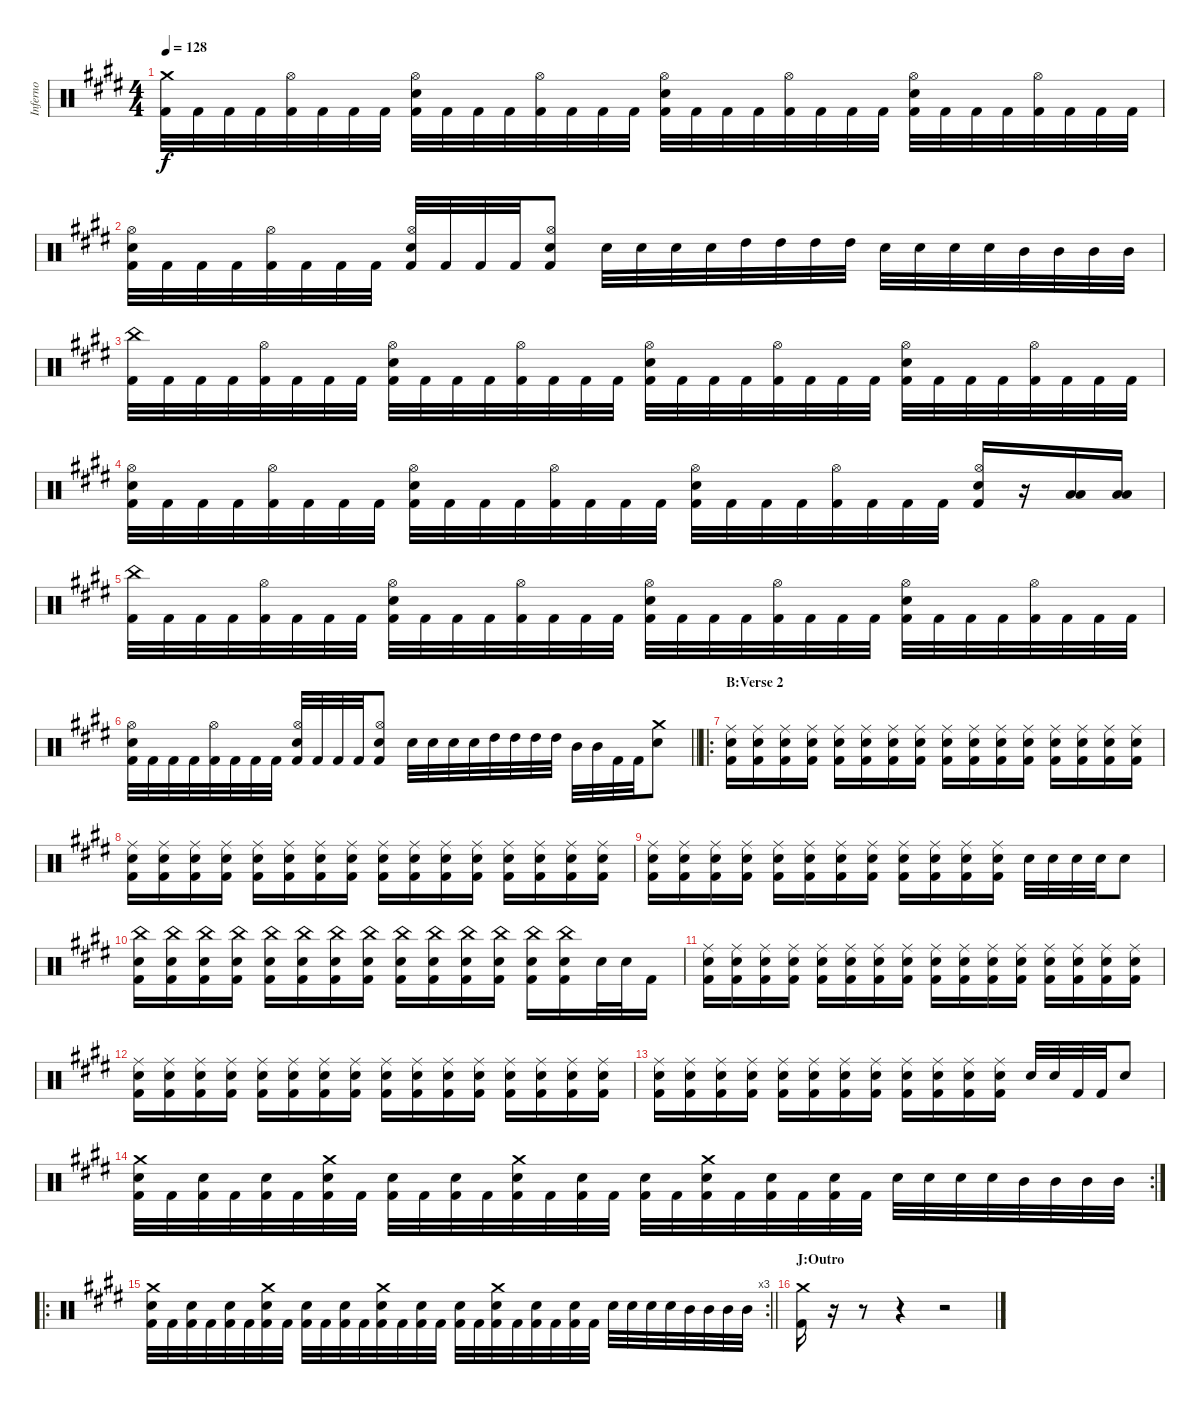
\track ("Inferno" "Inferno") {instrument percussion}
\staff
\articulation defaults
\ts (4 4)
\tempo 128
\clef neutral
\ks c#minor
("Crash medium (hit)" "Kick (hit) 2").32{dy f} "Kick (hit) 2".32 "Kick (hit) 2".32 "Kick (hit) 2".32 ("Hi-Hat (open)" "Kick (hit) 2").32 "Kick (hit) 2".32 "Kick (hit) 2".32 "Kick (hit) 2".32 ("Hi-Hat (open)" "Snare (hit) 2" "Kick (hit) 2").32 "Kick (hit) 2".32 "Kick (hit) 2".32 "Kick (hit) 2".32 ("Hi-Hat (open)" "Kick (hit) 2").32 "Kick (hit) 2".32 "Kick (hit) 2".32 "Kick (hit) 2".32 ("Hi-Hat (open)" "Snare (hit) 2" "Kick (hit) 2").32 "Kick (hit) 2".32 "Kick (hit) 2".32 "Kick (hit) 2".32 ("Hi-Hat (open)" "Kick (hit) 2").32 "Kick (hit) 2".32 "Kick (hit) 2".32 "Kick (hit) 2".32 ("Hi-Hat (open)" "Snare (hit) 2" "Kick (hit) 2").32 "Kick (hit) 2".32 "Kick (hit) 2".32 "Kick (hit) 2".32 ("Hi-Hat (open)" "Kick (hit) 2").32 "Kick (hit) 2".32 "Kick (hit) 2".32 "Kick (hit) 2".32 |
("Hi-Hat (open)" "Snare (hit) 2" "Kick (hit) 2").32 "Kick (hit) 2".32 "Kick (hit) 2".32 "Kick (hit) 2".32 ("Hi-Hat (open)" "Kick (hit) 2").32 "Kick (hit) 2".32 "Kick (hit) 2".32 "Kick (hit) 2".32 ("Hi-Hat (open)" "Snare (hit) 2" "Kick (hit) 2").32 "Kick (hit) 2".32 "Kick (hit) 2".32 "Kick (hit) 2".32 ("Hi-Hat (open)" "Snare (hit) 2" "Kick (hit) 2").8 "Snare (hit) 2".32 "Snare (hit) 2".32 "Snare (hit) 2".32 "Snare (hit) 2".32 "High Tom (hit)".32 "High Tom (hit)".32 "High Tom (hit)".32 "High Tom (hit)".32 "Snare (hit) 2".32 "Snare (hit) 2".32 "Snare (hit) 2".32 "Snare (hit) 2".32 "Mid Tom (hit)".32 "Mid Tom (hit)".32 "Mid Tom (hit)".32 "Mid Tom (hit)".32 |
("China (hit)" "Kick (hit) 2").32 "Kick (hit) 2".32 "Kick (hit) 2".32 "Kick (hit) 2".32 ("Hi-Hat (open)" "Kick (hit) 2").32 "Kick (hit) 2".32 "Kick (hit) 2".32 "Kick (hit) 2".32 ("Hi-Hat (open)" "Snare (hit) 2" "Kick (hit) 2").32 "Kick (hit) 2".32 "Kick (hit) 2".32 "Kick (hit) 2".32 ("Hi-Hat (open)" "Kick (hit) 2").32 "Kick (hit) 2".32 "Kick (hit) 2".32 "Kick (hit) 2".32 ("Hi-Hat (open)" "Snare (hit) 2" "Kick (hit) 2").32 "Kick (hit) 2".32 "Kick (hit) 2".32 "Kick (hit) 2".32 ("Hi-Hat (open)" "Kick (hit) 2").32 "Kick (hit) 2".32 "Kick (hit) 2".32 "Kick (hit) 2".32 ("Hi-Hat (open)" "Snare (hit) 2" "Kick (hit) 2").32 "Kick (hit) 2".32 "Kick (hit) 2".32 "Kick (hit) 2".32 ("Hi-Hat (open)" "Kick (hit) 2").32 "Kick (hit) 2".32 "Kick (hit) 2".32 "Kick (hit) 2".32 |
("Hi-Hat (open)" "Snare (hit) 2" "Kick (hit) 2").32 "Kick (hit) 2".32 "Kick (hit) 2".32 "Kick (hit) 2".32 ("Hi-Hat (open)" "Kick (hit) 2").32 "Kick (hit) 2".32 "Kick (hit) 2".32 "Kick (hit) 2".32 ("Hi-Hat (open)" "Snare (hit) 2" "Kick (hit) 2").32 "Kick (hit) 2".32 "Kick (hit) 2".32 "Kick (hit) 2".32 ("Hi-Hat (open)" "Kick (hit) 2").32 "Kick (hit) 2".32 "Kick (hit) 2".32 "Kick (hit) 2".32 ("Hi-Hat (open)" "Snare (hit) 2" "Kick (hit) 2").32 "Kick (hit) 2".32 "Kick (hit) 2".32 "Kick (hit) 2".32 ("Hi-Hat (open)" "Kick (hit) 2").32 "Kick (hit) 2".32 "Kick (hit) 2".32 "Kick (hit) 2".32 ("Hi-Hat (open)" "Snare (hit) 2" "Kick (hit) 2").16 r.16 ("Low Tom (hit)" "Low Floor Tom (hit)").16 ("Low Tom (hit)" "Low Floor Tom (hit)").16 |
("China (hit)" "Kick (hit) 2").32 "Kick (hit) 2".32 "Kick (hit) 2".32 "Kick (hit) 2".32 ("Hi-Hat (open)" "Kick (hit) 2").32 "Kick (hit) 2".32 "Kick (hit) 2".32 "Kick (hit) 2".32 ("Hi-Hat (open)" "Snare (hit) 2" "Kick (hit) 2").32 "Kick (hit) 2".32 "Kick (hit) 2".32 "Kick (hit) 2".32 ("Hi-Hat (open)" "Kick (hit) 2").32 "Kick (hit) 2".32 "Kick (hit) 2".32 "Kick (hit) 2".32 ("Hi-Hat (open)" "Snare (hit) 2" "Kick (hit) 2").32 "Kick (hit) 2".32 "Kick (hit) 2".32 "Kick (hit) 2".32 ("Hi-Hat (open)" "Kick (hit) 2").32 "Kick (hit) 2".32 "Kick (hit) 2".32 "Kick (hit) 2".32 ("Hi-Hat (open)" "Snare (hit) 2" "Kick (hit) 2").32 "Kick (hit) 2".32 "Kick (hit) 2".32 "Kick (hit) 2".32 ("Hi-Hat (open)" "Kick (hit) 2").32 "Kick (hit) 2".32 "Kick (hit) 2".32 "Kick (hit) 2".32 |
\barLineRight lightlight
("Hi-Hat (open)" "Snare (hit) 2" "Kick (hit) 2").32 "Kick (hit) 2".32 "Kick (hit) 2".32 "Kick (hit) 2".32 ("Hi-Hat (open)" "Kick (hit) 2").32 "Kick (hit) 2".32 "Kick (hit) 2".32 "Kick (hit) 2".32 ("Hi-Hat (open)" "Snare (hit) 2" "Kick (hit) 2").32 "Kick (hit) 2".32 "Kick (hit) 2".32 "Kick (hit) 2".32 ("Hi-Hat (open)" "Snare (hit) 2" "Kick (hit) 2").8 "Snare (hit) 2".32 "Snare (hit) 2".32 "Snare (hit) 2".32 "Snare (hit) 2".32 "High Tom (hit)".32 "High Tom (hit)".32 "High Tom (hit)".32 "High Tom (hit)".32 "Mid Tom (hit)".32 "Mid Tom (hit)".32 "Kick (hit) 2".32 "Kick (hit) 2".32 ("Crash medium (hit)" "Snare (hit) 2").8 |
\ro
\section ("" "B:Verse 2")
("Ride (middle)" "Snare (hit) 2" "Kick (hit) 2").16 ("Ride (middle)" "Snare (hit) 2" "Kick (hit) 2").16 ("Ride (middle)" "Snare (hit) 2" "Kick (hit) 2").16 ("Ride (middle)" "Snare (hit) 2" "Kick (hit) 2").16 ("Ride (middle)" "Snare (hit) 2" "Kick (hit) 2").16 ("Ride (middle)" "Snare (hit) 2" "Kick (hit) 2").16 ("Ride (middle)" "Snare (hit) 2" "Kick (hit) 2").16 ("Ride (middle)" "Snare (hit) 2" "Kick (hit) 2").16 ("Ride (middle)" "Snare (hit) 2" "Kick (hit) 2").16 ("Ride (middle)" "Snare (hit) 2" "Kick (hit) 2").16 ("Ride (middle)" "Snare (hit) 2" "Kick (hit) 2").16 ("Ride (middle)" "Snare (hit) 2" "Kick (hit) 2").16 ("Ride (middle)" "Snare (hit) 2" "Kick (hit) 2").16 ("Ride (middle)" "Snare (hit) 2" "Kick (hit) 2").16 ("Ride (middle)" "Snare (hit) 2" "Kick (hit) 2").16 ("Ride (middle)" "Snare (hit) 2" "Kick (hit) 2").16 |
("Ride (middle)" "Snare (hit) 2" "Kick (hit) 2").16 ("Ride (middle)" "Snare (hit) 2" "Kick (hit) 2").16 ("Ride (middle)" "Snare (hit) 2" "Kick (hit) 2").16 ("Ride (middle)" "Snare (hit) 2" "Kick (hit) 2").16 ("Ride (middle)" "Snare (hit) 2" "Kick (hit) 2").16 ("Ride (middle)" "Snare (hit) 2" "Kick (hit) 2").16 ("Ride (middle)" "Snare (hit) 2" "Kick (hit) 2").16 ("Ride (middle)" "Snare (hit) 2" "Kick (hit) 2").16 ("Ride (middle)" "Snare (hit) 2" "Kick (hit) 2").16 ("Ride (middle)" "Snare (hit) 2" "Kick (hit) 2").16 ("Ride (middle)" "Snare (hit) 2" "Kick (hit) 2").16 ("Ride (middle)" "Snare (hit) 2" "Kick (hit) 2").16 ("Ride (middle)" "Snare (hit) 2" "Kick (hit) 2").16 ("Ride (middle)" "Snare (hit) 2" "Kick (hit) 2").16 ("Ride (middle)" "Snare (hit) 2" "Kick (hit) 2").16 ("Ride (middle)" "Snare (hit) 2" "Kick (hit) 2").16 |
("Ride (middle)" "Snare (hit) 2" "Kick (hit) 2").16 ("Ride (middle)" "Snare (hit) 2" "Kick (hit) 2").16 ("Ride (middle)" "Snare (hit) 2" "Kick (hit) 2").16 ("Ride (middle)" "Snare (hit) 2" "Kick (hit) 2").16 ("Ride (middle)" "Snare (hit) 2" "Kick (hit) 2").16 ("Ride (middle)" "Snare (hit) 2" "Kick (hit) 2").16 ("Ride (middle)" "Snare (hit) 2" "Kick (hit) 2").16 ("Ride (middle)" "Snare (hit) 2" "Kick (hit) 2").16 ("Ride (middle)" "Snare (hit) 2" "Kick (hit) 2").16 ("Ride (middle)" "Snare (hit) 2" "Kick (hit) 2").16 ("Ride (middle)" "Snare (hit) 2" "Kick (hit) 2").16 ("Ride (middle)" "Snare (hit) 2" "Kick (hit) 2").16 "Snare (hit) 2".32 "Snare (hit) 2".32 "Snare (hit) 2".32 "Snare (hit) 2".32 "Snare (hit) 2".8 |
("China (hit)" "Snare (hit) 2" "Kick (hit) 2").16 ("China (hit)" "Snare (hit) 2" "Kick (hit) 2").16 ("China (hit)" "Snare (hit) 2" "Kick (hit) 2").16 ("China (hit)" "Snare (hit) 2" "Kick (hit) 2").16 ("China (hit)" "Snare (hit) 2" "Kick (hit) 2").16 ("China (hit)" "Snare (hit) 2" "Kick (hit) 2").16 ("China (hit)" "Snare (hit) 2" "Kick (hit) 2").16 ("China (hit)" "Snare (hit) 2" "Kick (hit) 2").16 ("China (hit)" "Snare (hit) 2" "Kick (hit) 2").16 ("China (hit)" "Snare (hit) 2" "Kick (hit) 2").16 ("China (hit)" "Snare (hit) 2" "Kick (hit) 2").16 ("China (hit)" "Snare (hit) 2" "Kick (hit) 2").16 ("China (hit)" "Snare (hit) 2" "Kick (hit) 2").16 ("China (hit)" "Snare (hit) 2" "Kick (hit) 2").16 "Snare (hit) 2".32 "Snare (hit) 2".32 "Kick (hit) 2".16 |
("Ride (middle)" "Snare (hit) 2" "Kick (hit) 2").16 ("Ride (middle)" "Snare (hit) 2" "Kick (hit) 2").16 ("Ride (middle)" "Snare (hit) 2" "Kick (hit) 2").16 ("Ride (middle)" "Snare (hit) 2" "Kick (hit) 2").16 ("Ride (middle)" "Snare (hit) 2" "Kick (hit) 2").16 ("Ride (middle)" "Snare (hit) 2" "Kick (hit) 2").16 ("Ride (middle)" "Snare (hit) 2" "Kick (hit) 2").16 ("Ride (middle)" "Snare (hit) 2" "Kick (hit) 2").16 ("Ride (middle)" "Snare (hit) 2" "Kick (hit) 2").16 ("Ride (middle)" "Snare (hit) 2" "Kick (hit) 2").16 ("Ride (middle)" "Snare (hit) 2" "Kick (hit) 2").16 ("Ride (middle)" "Snare (hit) 2" "Kick (hit) 2").16 ("Ride (middle)" "Snare (hit) 2" "Kick (hit) 2").16 ("Ride (middle)" "Snare (hit) 2" "Kick (hit) 2").16 ("Ride (middle)" "Snare (hit) 2" "Kick (hit) 2").16 ("Ride (middle)" "Snare (hit) 2" "Kick (hit) 2").16 |
("Ride (middle)" "Snare (hit) 2" "Kick (hit) 2").16 ("Ride (middle)" "Snare (hit) 2" "Kick (hit) 2").16 ("Ride (middle)" "Snare (hit) 2" "Kick (hit) 2").16 ("Ride (middle)" "Snare (hit) 2" "Kick (hit) 2").16 ("Ride (middle)" "Snare (hit) 2" "Kick (hit) 2").16 ("Ride (middle)" "Snare (hit) 2" "Kick (hit) 2").16 ("Ride (middle)" "Snare (hit) 2" "Kick (hit) 2").16 ("Ride (middle)" "Snare (hit) 2" "Kick (hit) 2").16 ("Ride (middle)" "Snare (hit) 2" "Kick (hit) 2").16 ("Ride (middle)" "Snare (hit) 2" "Kick (hit) 2").16 ("Ride (middle)" "Snare (hit) 2" "Kick (hit) 2").16 ("Ride (middle)" "Snare (hit) 2" "Kick (hit) 2").16 ("Ride (middle)" "Snare (hit) 2" "Kick (hit) 2").16 ("Ride (middle)" "Snare (hit) 2" "Kick (hit) 2").16 ("Ride (middle)" "Snare (hit) 2" "Kick (hit) 2").16 ("Ride (middle)" "Snare (hit) 2" "Kick (hit) 2").16 |
("Ride (middle)" "Snare (hit) 2" "Kick (hit) 2").16 ("Ride (middle)" "Snare (hit) 2" "Kick (hit) 2").16 ("Ride (middle)" "Snare (hit) 2" "Kick (hit) 2").16 ("Ride (middle)" "Snare (hit) 2" "Kick (hit) 2").16 ("Ride (middle)" "Snare (hit) 2" "Kick (hit) 2").16 ("Ride (middle)" "Snare (hit) 2" "Kick (hit) 2").16 ("Ride (middle)" "Snare (hit) 2" "Kick (hit) 2").16 ("Ride (middle)" "Snare (hit) 2" "Kick (hit) 2").16 ("Ride (middle)" "Snare (hit) 2" "Kick (hit) 2").16 ("Ride (middle)" "Snare (hit) 2" "Kick (hit) 2").16 ("Ride (middle)" "Snare (hit) 2" "Kick (hit) 2").16 ("Ride (middle)" "Snare (hit) 2" "Kick (hit) 2").16 "Snare (hit) 2".32 "Snare (hit) 2".32 "Kick (hit) 2".32 "Kick (hit) 2".32 "Snare (hit) 2".8 |
\rc 2
("Crash medium (hit)" "Snare (hit) 2" "Kick (hit) 2").32 "Kick (hit) 2".32 ("Snare (hit) 2" "Kick (hit) 2").32 "Kick (hit) 2".32 ("Snare (hit) 2" "Kick (hit) 2").32 "Kick (hit) 2".32 ("Crash medium (hit)" "Snare (hit) 2" "Kick (hit) 2").32 "Kick (hit) 2".32 ("Snare (hit) 2" "Kick (hit) 2").32 "Kick (hit) 2".32 ("Snare (hit) 2" "Kick (hit) 2").32 "Kick (hit) 2".32 ("Crash medium (hit)" "Snare (hit) 2" "Kick (hit) 2").32 "Kick (hit) 2".32 ("Snare (hit) 2" "Kick (hit) 2").32 "Kick (hit) 2".32 ("Snare (hit) 2" "Kick (hit) 2").32 "Kick (hit) 2".32 ("Crash medium (hit)" "Snare (hit) 2" "Kick (hit) 2").32 "Kick (hit) 2".32 ("Snare (hit) 2" "Kick (hit) 2").32 "Kick (hit) 2".32 ("Snare (hit) 2" "Kick (hit) 2").32 "Kick (hit) 2".32 "Snare (hit) 2".32 "Snare (hit) 2".32 "Snare (hit) 2".32 "Snare (hit) 2".32 "Mid Tom (hit)".32 "Mid Tom (hit)".32 "Mid Tom (hit)".32 "Mid Tom (hit)".32 |
\ro
\rc 3
\barLineRight lightlight
("Crash medium (hit)" "Snare (hit) 2" "Kick (hit) 2").32 "Kick (hit) 2".32 ("Snare (hit) 2" "Kick (hit) 2").32 "Kick (hit) 2".32 ("Snare (hit) 2" "Kick (hit) 2").32 "Kick (hit) 2".32 ("Crash medium (hit)" "Snare (hit) 2" "Kick (hit) 2").32 "Kick (hit) 2".32 ("Snare (hit) 2" "Kick (hit) 2").32 "Kick (hit) 2".32 ("Snare (hit) 2" "Kick (hit) 2").32 "Kick (hit) 2".32 ("Crash medium (hit)" "Snare (hit) 2" "Kick (hit) 2").32 "Kick (hit) 2".32 ("Snare (hit) 2" "Kick (hit) 2").32 "Kick (hit) 2".32 ("Snare (hit) 2" "Kick (hit) 2").32 "Kick (hit) 2".32 ("Crash medium (hit)" "Snare (hit) 2" "Kick (hit) 2").32 "Kick (hit) 2".32 ("Snare (hit) 2" "Kick (hit) 2").32 "Kick (hit) 2".32 ("Snare (hit) 2" "Kick (hit) 2").32 "Kick (hit) 2".32 "Snare (hit) 2".32 "Snare (hit) 2".32 "Snare (hit) 2".32 "Snare (hit) 2".32 "Mid Tom (hit)".32 "Mid Tom (hit)".32 "Mid Tom (hit)".32 "Mid Tom (hit)".32 |
\section ("" "J:Outro")
("Crash medium (hit)" "Kick (hit) 2").16 r.16 r.8 r.4 r.2
